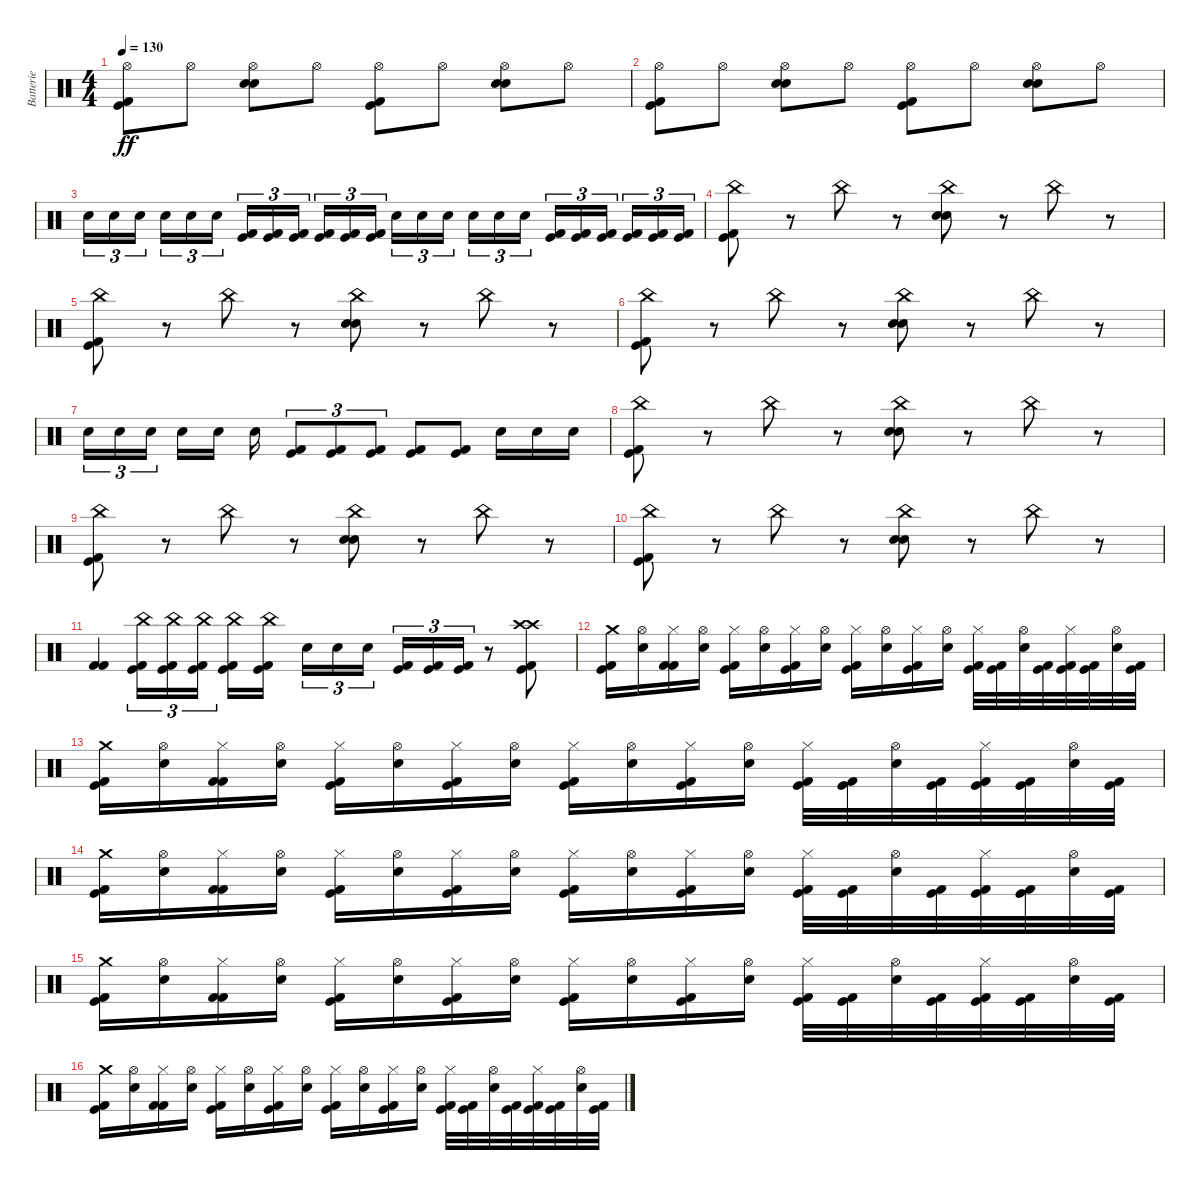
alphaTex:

\track ("Batterie" "Batterie") {instrument percussion}
\staff {score}
\articulation defaults
\ts (4 4)
\tempo 130
\clef neutral
\ks c
("Hi-Hat (open)" "Kick (hit) 2" "Kick (hit)").8{dy ff} "Hi-Hat (open)".8 ("Hi-Hat (open)" "Electric Snare (hit)" "Electric Snare (hit)").8 "Hi-Hat (open)".8 ("Hi-Hat (open)" "Kick (hit)" "Kick (hit) 2").8 "Hi-Hat (open)".8 ("Hi-Hat (open)" "Electric Snare (hit)" "Electric Snare (hit)").8 "Hi-Hat (open)".8 |
("Hi-Hat (open)" "Kick (hit) 2" "Kick (hit)").8 "Hi-Hat (open)".8 ("Hi-Hat (open)" "Electric Snare (hit)" "Electric Snare (hit)").8 "Hi-Hat (open)".8 ("Hi-Hat (open)" "Kick (hit)" "Kick (hit) 2").8 "Hi-Hat (open)".8 ("Hi-Hat (open)" "Electric Snare (hit)" "Electric Snare (hit)").8 "Hi-Hat (open)".8 |
"Electric Snare (hit)".16{tu (3 2)} "Electric Snare (hit)".16{tu (3 2)} "Electric Snare (hit)".16{tu (3 2)} "Electric Snare (hit)".16{tu (3 2)} "Electric Snare (hit)".16{tu (3 2)} "Electric Snare (hit)".16{tu (3 2)} ("Kick (hit)" "Kick (hit) 2").16{tu (3 2)} ("Kick (hit) 2" "Kick (hit)").16{tu (3 2)} ("Kick (hit)" "Kick (hit) 2").16{tu (3 2)} ("Kick (hit) 2" "Kick (hit)").16{tu (3 2)} ("Kick (hit)" "Kick (hit) 2").16{tu (3 2)} ("Kick (hit)" "Kick (hit) 2").16{tu (3 2)} "Electric Snare (hit)".16{tu (3 2)} "Electric Snare (hit)".16{tu (3 2)} "Electric Snare (hit)".16{tu (3 2)} "Electric Snare (hit)".16{tu (3 2)} "Electric Snare (hit)".16{tu (3 2)} "Electric Snare (hit)".16{tu (3 2)} ("Kick (hit) 2" "Kick (hit)").16{tu (3 2)} ("Kick (hit) 2" "Kick (hit)").16{tu (3 2)} ("Kick (hit) 2" "Kick (hit)").16{tu (3 2)} ("Kick (hit) 2" "Kick (hit)").16{tu (3 2)} ("Kick (hit) 2" "Kick (hit)").16{tu (3 2)} ("Kick (hit) 2" "Kick (hit)").16{tu (3 2)} |
("China (hit)" "Kick (hit) 2" "Kick (hit)").8 r.8 "China (hit)".8 r.8 ("China (hit)" "Electric Snare (hit)" "Electric Snare (hit)").8 r.8 "China (hit)".8 r.8 |
("China (hit)" "Kick (hit) 2" "Kick (hit)").8 r.8 "China (hit)".8 r.8 ("China (hit)" "Electric Snare (hit)" "Electric Snare (hit)").8 r.8 "China (hit)".8 r.8 |
("China (hit)" "Kick (hit) 2" "Kick (hit)").8 r.8 "China (hit)".8 r.8 ("China (hit)" "Electric Snare (hit)" "Electric Snare (hit)").8 r.8 "China (hit)".8 r.8 |
"Electric Snare (hit)".16{tu (3 2)} "Electric Snare (hit)".16{tu (3 2)} "Electric Snare (hit)".16{tu (3 2)} "Electric Snare (hit)".16 "Electric Snare (hit)".16 "Electric Snare (hit)".16 ("Kick (hit) 2" "Kick (hit)").8{tu (3 2)} ("Kick (hit)" "Kick (hit) 2").8{tu (3 2)} ("Kick (hit) 2" "Kick (hit)").8{tu (3 2)} ("Kick (hit)" "Kick (hit) 2").8 ("Kick (hit)" "Kick (hit) 2").8 "Electric Snare (hit)".16 "Electric Snare (hit)".16 "Electric Snare (hit)".16 |
("China (hit)" "Kick (hit) 2" "Kick (hit)").8 r.8 "China (hit)".8 r.8 ("China (hit)" "Electric Snare (hit)" "Electric Snare (hit)").8 r.8 "China (hit)".8 r.8 |
("China (hit)" "Kick (hit) 2" "Kick (hit)").8 r.8 "China (hit)".8 r.8 ("China (hit)" "Electric Snare (hit)" "Electric Snare (hit)").8 r.8 "China (hit)".8 r.8 |
("China (hit)" "Kick (hit) 2" "Kick (hit)").8 r.8 "China (hit)".8 r.8 ("China (hit)" "Electric Snare (hit)" "Electric Snare (hit)").8 r.8 "China (hit)".8 r.8 |
("Kick (hit) 2" "Kick (hit) 2").4 ("China (hit)" "Kick (hit) 2" "Kick (hit)").16{tu (3 2)} ("China (hit)" "Kick (hit)" "Kick (hit) 2").16{tu (3 2)} ("China (hit)" "Kick (hit) 2" "Kick (hit)").16{tu (3 2)} ("China (hit)" "Kick (hit)" "Kick (hit) 2").16 ("China (hit)" "Kick (hit) 2" "Kick (hit)").16 "Electric Snare (hit)".16{tu (3 2)} "Electric Snare (hit)".16{tu (3 2)} "Electric Snare (hit)".16{tu (3 2)} ("Kick (hit) 2" "Kick (hit)").16{tu (3 2)} ("Kick (hit)" "Kick (hit) 2").16{tu (3 2)} ("Kick (hit) 2" "Kick (hit)").16{tu (3 2)} r.8 ("Crash high (hit)" "Crash high (hit)" "Kick (hit) 2" "Kick (hit)").8 |
("Crash medium (hit)" "Kick (hit) 2" "Kick (hit)").16 ("Hi-Hat (open)" "Electric Snare (hit)").16 ("Hi-Hat (closed)" "Kick (hit) 2" "Kick (hit) 2").16 ("Hi-Hat (open)" "Electric Snare (hit)").16 ("Hi-Hat (closed)" "Kick (hit)" "Kick (hit) 2").16 ("Hi-Hat (open)" "Electric Snare (hit)").16 ("Hi-Hat (closed)" "Kick (hit)" "Kick (hit) 2").16 ("Hi-Hat (open)" "Electric Snare (hit)").16 ("Hi-Hat (closed)" "Kick (hit) 2" "Kick (hit)").16 ("Hi-Hat (open)" "Electric Snare (hit)").16 ("Hi-Hat (closed)" "Kick (hit)" "Kick (hit) 2").16 ("Hi-Hat (open)" "Electric Snare (hit)").16 ("Hi-Hat (closed)" "Kick (hit)" "Kick (hit) 2").32 ("Kick (hit) 2" "Kick (hit)").32 ("Hi-Hat (open)" "Electric Snare (hit)").32 ("Kick (hit) 2" "Kick (hit)").32 ("Hi-Hat (closed)" "Kick (hit) 2" "Kick (hit)").32 ("Kick (hit) 2" "Kick (hit)").32 ("Hi-Hat (open)" "Electric Snare (hit)").32 ("Kick (hit) 2" "Kick (hit)").32 |
("Crash medium (hit)" "Kick (hit) 2" "Kick (hit)").16 ("Hi-Hat (open)" "Electric Snare (hit)").16 ("Hi-Hat (closed)" "Kick (hit) 2" "Kick (hit) 2").16 ("Hi-Hat (open)" "Electric Snare (hit)").16 ("Hi-Hat (closed)" "Kick (hit)" "Kick (hit) 2").16 ("Hi-Hat (open)" "Electric Snare (hit)").16 ("Hi-Hat (closed)" "Kick (hit)" "Kick (hit) 2").16 ("Hi-Hat (open)" "Electric Snare (hit)").16 ("Hi-Hat (closed)" "Kick (hit) 2" "Kick (hit)").16 ("Hi-Hat (open)" "Electric Snare (hit)").16 ("Hi-Hat (closed)" "Kick (hit)" "Kick (hit) 2").16 ("Hi-Hat (open)" "Electric Snare (hit)").16 ("Hi-Hat (closed)" "Kick (hit)" "Kick (hit) 2").32 ("Kick (hit) 2" "Kick (hit)").32 ("Hi-Hat (open)" "Electric Snare (hit)").32 ("Kick (hit) 2" "Kick (hit)").32 ("Hi-Hat (closed)" "Kick (hit) 2" "Kick (hit)").32 ("Kick (hit) 2" "Kick (hit)").32 ("Hi-Hat (open)" "Electric Snare (hit)").32 ("Kick (hit) 2" "Kick (hit)").32 |
("Crash medium (hit)" "Kick (hit) 2" "Kick (hit)").16 ("Hi-Hat (open)" "Electric Snare (hit)").16 ("Hi-Hat (closed)" "Kick (hit) 2" "Kick (hit) 2").16 ("Hi-Hat (open)" "Electric Snare (hit)").16 ("Hi-Hat (closed)" "Kick (hit)" "Kick (hit) 2").16 ("Hi-Hat (open)" "Electric Snare (hit)").16 ("Hi-Hat (closed)" "Kick (hit)" "Kick (hit) 2").16 ("Hi-Hat (open)" "Electric Snare (hit)").16 ("Hi-Hat (closed)" "Kick (hit) 2" "Kick (hit)").16 ("Hi-Hat (open)" "Electric Snare (hit)").16 ("Hi-Hat (closed)" "Kick (hit)" "Kick (hit) 2").16 ("Hi-Hat (open)" "Electric Snare (hit)").16 ("Hi-Hat (closed)" "Kick (hit)" "Kick (hit) 2").32 ("Kick (hit) 2" "Kick (hit)").32 ("Hi-Hat (open)" "Electric Snare (hit)").32 ("Kick (hit) 2" "Kick (hit)").32 ("Hi-Hat (closed)" "Kick (hit) 2" "Kick (hit)").32 ("Kick (hit) 2" "Kick (hit)").32 ("Hi-Hat (open)" "Electric Snare (hit)").32 ("Kick (hit) 2" "Kick (hit)").32 |
("Crash medium (hit)" "Kick (hit) 2" "Kick (hit)").16 ("Hi-Hat (open)" "Electric Snare (hit)").16 ("Hi-Hat (closed)" "Kick (hit) 2" "Kick (hit) 2").16 ("Hi-Hat (open)" "Electric Snare (hit)").16 ("Hi-Hat (closed)" "Kick (hit)" "Kick (hit) 2").16 ("Hi-Hat (open)" "Electric Snare (hit)").16 ("Hi-Hat (closed)" "Kick (hit)" "Kick (hit) 2").16 ("Hi-Hat (open)" "Electric Snare (hit)").16 ("Hi-Hat (closed)" "Kick (hit) 2" "Kick (hit)").16 ("Hi-Hat (open)" "Electric Snare (hit)").16 ("Hi-Hat (closed)" "Kick (hit)" "Kick (hit) 2").16 ("Hi-Hat (open)" "Electric Snare (hit)").16 ("Hi-Hat (closed)" "Kick (hit)" "Kick (hit) 2").32 ("Kick (hit) 2" "Kick (hit)").32 ("Hi-Hat (open)" "Electric Snare (hit)").32 ("Kick (hit) 2" "Kick (hit)").32 ("Hi-Hat (closed)" "Kick (hit) 2" "Kick (hit)").32 ("Kick (hit) 2" "Kick (hit)").32 ("Hi-Hat (open)" "Electric Snare (hit)").32 ("Kick (hit) 2" "Kick (hit)").32 |
("Crash medium (hit)" "Kick (hit) 2" "Kick (hit)").16 ("Hi-Hat (open)" "Electric Snare (hit)").16 ("Hi-Hat (closed)" "Kick (hit) 2" "Kick (hit) 2").16 ("Hi-Hat (open)" "Electric Snare (hit)").16 ("Hi-Hat (closed)" "Kick (hit)" "Kick (hit) 2").16 ("Hi-Hat (open)" "Electric Snare (hit)").16 ("Hi-Hat (closed)" "Kick (hit)" "Kick (hit) 2").16 ("Hi-Hat (open)" "Electric Snare (hit)").16 ("Hi-Hat (closed)" "Kick (hit) 2" "Kick (hit)").16 ("Hi-Hat (open)" "Electric Snare (hit)").16 ("Hi-Hat (closed)" "Kick (hit)" "Kick (hit) 2").16 ("Hi-Hat (open)" "Electric Snare (hit)").16 ("Hi-Hat (closed)" "Kick (hit)" "Kick (hit) 2").32 ("Kick (hit) 2" "Kick (hit)").32 ("Hi-Hat (open)" "Electric Snare (hit)").32 ("Kick (hit) 2" "Kick (hit)").32 ("Hi-Hat (closed)" "Kick (hit) 2" "Kick (hit)").32 ("Kick (hit) 2" "Kick (hit)").32 ("Hi-Hat (open)" "Electric Snare (hit)").32 ("Kick (hit) 2" "Kick (hit)").32
